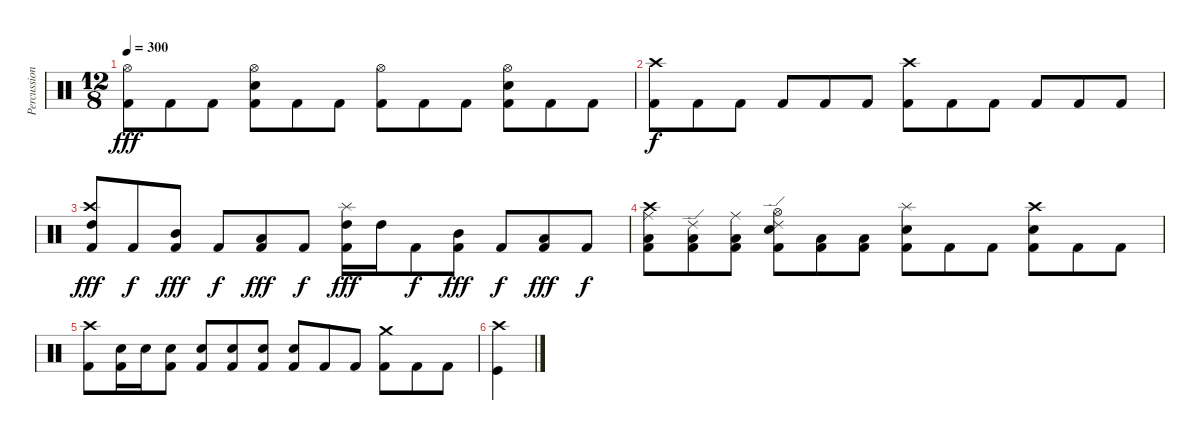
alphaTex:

\track ("Percussion" "Percussion") {instrument percussion}
\staff {score}
\articulation defaults
\ts (12 8)
\tempo 300
\clef neutral
\ks c
("Hi-Hat (open)" "Kick (hit) 2").8{dy fff} "Kick (hit) 2".8 "Kick (hit) 2".8 ("Hi-Hat (open)" "Snare (hit) 2" "Kick (hit) 2").8 "Kick (hit) 2".8 "Kick (hit) 2".8 ("Hi-Hat (open)" "Kick (hit) 2").8 "Kick (hit) 2".8 "Kick (hit) 2".8 ("Hi-Hat (open)" "Snare (hit) 2" "Kick (hit) 2").8 "Kick (hit) 2".8 "Kick (hit) 2".8 |
("Crash high (hit)" "Kick (hit) 2").8{dy f} "Kick (hit) 2".8 "Kick (hit) 2".8 "Kick (hit) 2".8 "Kick (hit) 2".8 "Kick (hit) 2".8 ("Crash high (hit)" "Kick (hit) 2").8 "Kick (hit) 2".8 "Kick (hit) 2".8 "Kick (hit) 2".8 "Kick (hit) 2".8 "Kick (hit) 2".8 |
("Crash high (hit)" "High Tom (hit)" "Kick (hit) 2").8{dy fff} "Kick (hit) 2".8{dy f} ("Mid Tom (hit)" "Kick (hit) 2").8{dy fff} "Kick (hit) 2".8{dy f} ("Low Tom (hit)" "Kick (hit) 2").8{dy fff} "Kick (hit) 2".8{dy f} ("Splash (hit)" "High Tom (hit)" "Kick (hit) 2").16{dy fff} "High Tom (hit)".16 "Kick (hit) 2".8{dy f} ("Mid Tom (hit)" "Kick (hit) 2").8{dy fff} "Kick (hit) 2".8{dy f} ("Low Tom (hit)" "Kick (hit) 2").8{dy fff} "Kick (hit) 2".8{dy f} |
("Crash high (hit)" "Low Tom (hit)" "Ride (middle)" "Kick (hit) 2").8 ("Low Tom (hit)" "Ride (edge) 2" "Kick (hit) 2").8 ("Low Tom (hit)" "Ride (middle)" "Kick (hit) 2").8 ("Hi-Hat (open)" "Snare (hit) 2" "Ride (edge) 2" "Kick (hit) 2").8 ("Low Tom (hit)" "Kick (hit) 2").8 ("Low Tom (hit)" "Kick (hit) 2").8 ("Splash (hit)" "Snare (hit) 2" "Kick (hit) 2").8 "Kick (hit) 2".8 "Kick (hit) 2".8 ("Crash high (hit)" "Snare (hit) 2" "Kick (hit) 2").8 "Kick (hit) 2".8 "Kick (hit) 2".8 |
("Crash high (hit)" "Kick (hit) 2").8 ("Snare (hit) 2" "Kick (hit) 2").16 "Snare (hit) 2".16 ("Snare (hit) 2" "Kick (hit) 2").8 ("Snare (hit) 2" "Kick (hit) 2").8 ("Snare (hit) 2" "Kick (hit) 2").8 ("Snare (hit) 2" "Kick (hit) 2").8 ("Snare (hit) 2" "Kick (hit) 2").8 "Kick (hit) 2".8 "Kick (hit) 2".8 ("Crash medium (hit)" "Kick (hit) 2").8 "Kick (hit) 2".8 "Kick (hit) 2".8 |
("Crash high (hit)" "Kick (hit)").4
